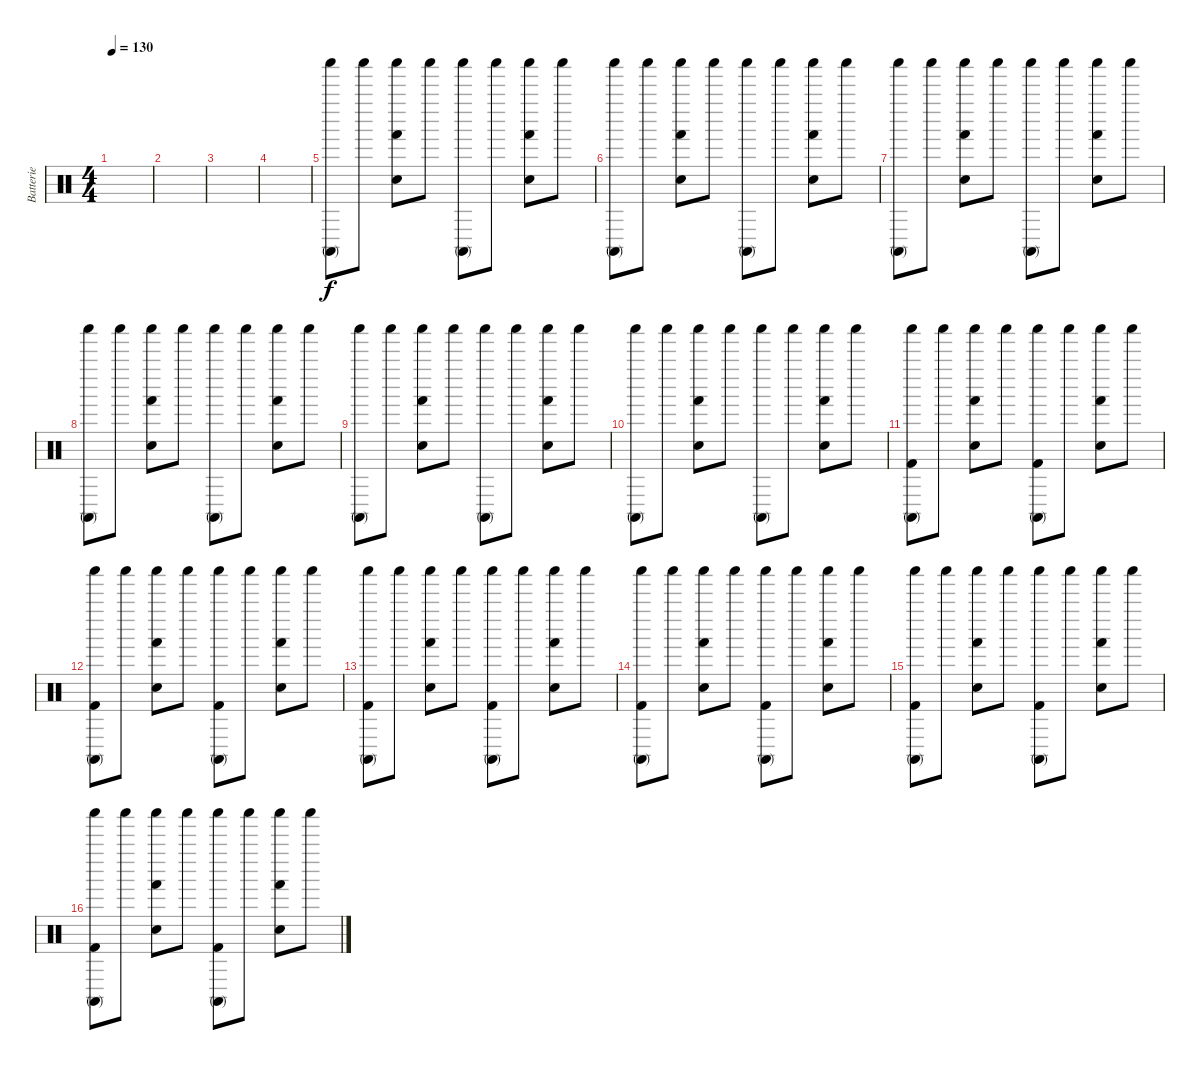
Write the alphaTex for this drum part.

\track ("Batterie" "Batterie") {instrument percussion}
\staff {score}
\articulation defaults
\ts (4 4)
\tempo 130
\clef neutral
\ks c
|
|
|
|
("Shaker (hit)" "Conga high (mute)").8 "Shaker (hit)".8 ("Shaker (hit)" "Electric Snare (hit)" "Hand (hit)").8 "Shaker (hit)".8 ("Shaker (hit)" "Conga high (mute)").8 "Shaker (hit)".8 ("Shaker (hit)" "Electric Snare (hit)" "Hand (hit)").8 "Shaker (hit)".8 |
("Shaker (hit)" "Conga high (mute)").8 "Shaker (hit)".8 ("Shaker (hit)" "Electric Snare (hit)" "Hand (hit)").8 "Shaker (hit)".8 ("Shaker (hit)" "Conga high (mute)").8 "Shaker (hit)".8 ("Shaker (hit)" "Electric Snare (hit)" "Hand (hit)").8 "Shaker (hit)".8 |
("Shaker (hit)" "Conga high (mute)").8 "Shaker (hit)".8 ("Shaker (hit)" "Electric Snare (hit)" "Hand (hit)").8 "Shaker (hit)".8 ("Shaker (hit)" "Conga high (mute)").8 "Shaker (hit)".8 ("Shaker (hit)" "Electric Snare (hit)" "Hand (hit)").8 "Shaker (hit)".8 |
("Shaker (hit)" "Conga high (mute)").8 "Shaker (hit)".8 ("Shaker (hit)" "Electric Snare (hit)" "Hand (hit)").8 "Shaker (hit)".8 ("Shaker (hit)" "Conga high (mute)").8 "Shaker (hit)".8 ("Shaker (hit)" "Electric Snare (hit)" "Hand (hit)").8 "Shaker (hit)".8 |
("Shaker (hit)" "Conga high (mute)").8 "Shaker (hit)".8 ("Shaker (hit)" "Electric Snare (hit)" "Hand (hit)").8 "Shaker (hit)".8 ("Shaker (hit)" "Conga high (mute)").8 "Shaker (hit)".8 ("Shaker (hit)" "Electric Snare (hit)" "Hand (hit)").8 "Shaker (hit)".8 |
("Shaker (hit)" "Conga high (mute)").8 "Shaker (hit)".8 ("Shaker (hit)" "Electric Snare (hit)" "Hand (hit)").8 "Shaker (hit)".8 ("Shaker (hit)" "Conga high (mute)").8 "Shaker (hit)".8 ("Shaker (hit)" "Electric Snare (hit)" "Hand (hit)").8 "Shaker (hit)".8 |
("Shaker (hit)" "Kick (hit) 2" "Conga high (mute)").8 "Shaker (hit)".8 ("Shaker (hit)" "Electric Snare (hit)" "Hand (hit)").8 "Shaker (hit)".8 ("Shaker (hit)" "Kick (hit) 2" "Conga high (mute)").8 "Shaker (hit)".8 ("Shaker (hit)" "Electric Snare (hit)" "Hand (hit)").8 "Shaker (hit)".8 |
("Shaker (hit)" "Kick (hit) 2" "Conga high (mute)").8 "Shaker (hit)".8 ("Shaker (hit)" "Electric Snare (hit)" "Hand (hit)").8 "Shaker (hit)".8 ("Shaker (hit)" "Kick (hit) 2" "Conga high (mute)").8 "Shaker (hit)".8 ("Shaker (hit)" "Electric Snare (hit)" "Hand (hit)").8 "Shaker (hit)".8 |
("Shaker (hit)" "Kick (hit) 2" "Conga high (mute)").8 "Shaker (hit)".8 ("Shaker (hit)" "Electric Snare (hit)" "Hand (hit)").8 "Shaker (hit)".8 ("Shaker (hit)" "Kick (hit) 2" "Conga high (mute)").8 "Shaker (hit)".8 ("Shaker (hit)" "Electric Snare (hit)" "Hand (hit)").8 "Shaker (hit)".8 |
("Shaker (hit)" "Kick (hit) 2" "Conga high (mute)").8 "Shaker (hit)".8 ("Shaker (hit)" "Electric Snare (hit)" "Hand (hit)").8 "Shaker (hit)".8 ("Shaker (hit)" "Kick (hit) 2" "Conga high (mute)").8 "Shaker (hit)".8 ("Shaker (hit)" "Electric Snare (hit)" "Hand (hit)").8 "Shaker (hit)".8 |
("Shaker (hit)" "Kick (hit) 2" "Conga high (mute)").8 "Shaker (hit)".8 ("Shaker (hit)" "Electric Snare (hit)" "Hand (hit)").8 "Shaker (hit)".8 ("Shaker (hit)" "Kick (hit) 2" "Conga high (mute)").8 "Shaker (hit)".8 ("Shaker (hit)" "Electric Snare (hit)" "Hand (hit)").8 "Shaker (hit)".8 |
("Shaker (hit)" "Kick (hit) 2" "Conga high (mute)").8 "Shaker (hit)".8 ("Shaker (hit)" "Electric Snare (hit)" "Hand (hit)").8 "Shaker (hit)".8 ("Shaker (hit)" "Kick (hit) 2" "Conga high (mute)").8 "Shaker (hit)".8 ("Shaker (hit)" "Electric Snare (hit)" "Hand (hit)").8 "Shaker (hit)".8
